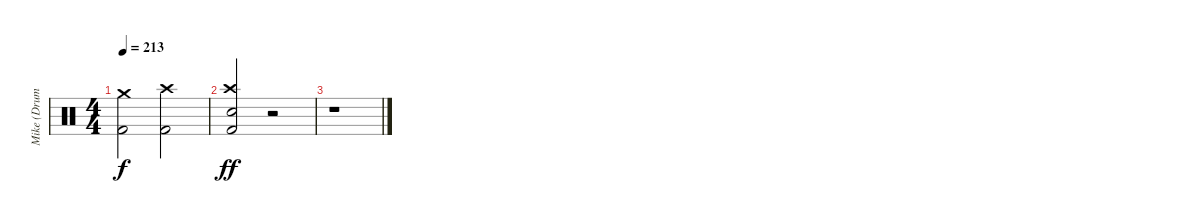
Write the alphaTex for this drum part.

\track ("Mike (Drums)" "Mike (Drum") {instrument percussion}
\staff {score}
\articulation defaults
\ts (4 4)
\tempo 213
\clef neutral
\ks c
("Crash medium (hit)" "Kick (hit) 2").2{dy f} ("Crash high (hit)" "Kick (hit) 2").2 |
("Crash high (hit)" "Electric Snare (hit)" "Kick (hit) 2").2{dy ff} r.2 |
r.1
